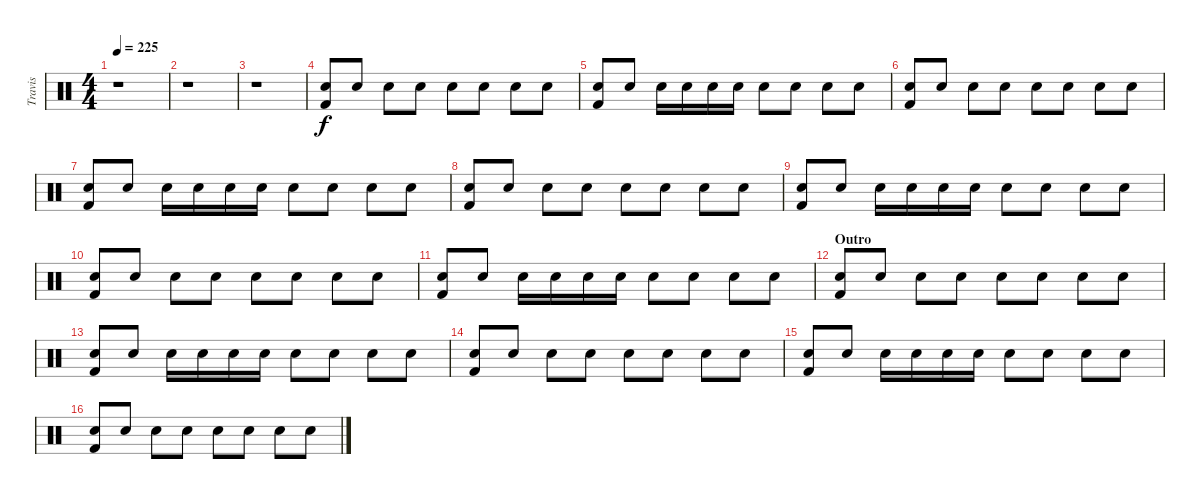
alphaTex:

\track ("Travis" "Travis") {instrument percussion}
\staff {score}
\articulation defaults
\ts (4 4)
\tempo 225
\clef neutral
\ks c
r.1{dy f} |
r.1 |
r.1 |
("Snare (hit) 2" "Kick (hit) 2").8 "Snare (hit) 2".8 "Snare (hit) 2".8 "Electric Snare (hit)".8 "Snare (hit) 2".8 "Snare (hit) 2".8 "Electric Snare (hit)".8 "Snare (hit) 2".8 |
("Snare (hit) 2" "Kick (hit) 2").8 "Snare (hit) 2".8 "Snare (hit) 2".16 "Snare (hit) 2".16 "Snare (hit) 2".16 "Snare (hit) 2".16 "Electric Snare (hit)".8 "Electric Snare (hit)".8 "Snare (hit) 2".8 "Snare (hit) 2".8 |
("Snare (hit) 2" "Kick (hit) 2").8 "Snare (hit) 2".8 "Snare (hit) 2".8 "Electric Snare (hit)".8 "Snare (hit) 2".8 "Snare (hit) 2".8 "Electric Snare (hit)".8 "Snare (hit) 2".8 |
("Snare (hit) 2" "Kick (hit) 2").8 "Snare (hit) 2".8 "Snare (hit) 2".16 "Snare (hit) 2".16 "Snare (hit) 2".16 "Snare (hit) 2".16 "Electric Snare (hit)".8 "Electric Snare (hit)".8 "Snare (hit) 2".8 "Snare (hit) 2".8 |
("Snare (hit) 2" "Kick (hit) 2").8 "Snare (hit) 2".8 "Snare (hit) 2".8 "Electric Snare (hit)".8 "Snare (hit) 2".8 "Snare (hit) 2".8 "Electric Snare (hit)".8 "Snare (hit) 2".8 |
("Snare (hit) 2" "Kick (hit) 2").8 "Snare (hit) 2".8 "Snare (hit) 2".16 "Snare (hit) 2".16 "Snare (hit) 2".16 "Snare (hit) 2".16 "Electric Snare (hit)".8 "Electric Snare (hit)".8 "Snare (hit) 2".8 "Snare (hit) 2".8 |
("Snare (hit) 2" "Kick (hit) 2").8 "Snare (hit) 2".8 "Snare (hit) 2".8 "Electric Snare (hit)".8 "Snare (hit) 2".8 "Snare (hit) 2".8 "Electric Snare (hit)".8 "Snare (hit) 2".8 |
("Snare (hit) 2" "Kick (hit) 2").8 "Snare (hit) 2".8 "Snare (hit) 2".16 "Snare (hit) 2".16 "Snare (hit) 2".16 "Snare (hit) 2".16 "Electric Snare (hit)".8 "Electric Snare (hit)".8 "Snare (hit) 2".8 "Snare (hit) 2".8 |
\section ("" "Outro")
("Snare (hit) 2" "Kick (hit) 2").8 "Snare (hit) 2".8 "Snare (hit) 2".8 "Electric Snare (hit)".8 "Snare (hit) 2".8 "Snare (hit) 2".8 "Electric Snare (hit)".8 "Snare (hit) 2".8 |
("Snare (hit) 2" "Kick (hit) 2").8 "Snare (hit) 2".8 "Snare (hit) 2".16 "Snare (hit) 2".16 "Snare (hit) 2".16 "Snare (hit) 2".16 "Electric Snare (hit)".8 "Electric Snare (hit)".8 "Snare (hit) 2".8 "Snare (hit) 2".8 |
("Snare (hit) 2" "Kick (hit) 2").8 "Snare (hit) 2".8 "Snare (hit) 2".8 "Electric Snare (hit)".8 "Snare (hit) 2".8 "Snare (hit) 2".8 "Electric Snare (hit)".8 "Snare (hit) 2".8 |
("Snare (hit) 2" "Kick (hit) 2").8 "Snare (hit) 2".8 "Snare (hit) 2".16 "Snare (hit) 2".16 "Snare (hit) 2".16 "Snare (hit) 2".16 "Electric Snare (hit)".8 "Electric Snare (hit)".8 "Snare (hit) 2".8 "Snare (hit) 2".8 |
("Snare (hit) 2" "Kick (hit) 2").8 "Snare (hit) 2".8 "Snare (hit) 2".8 "Electric Snare (hit)".8 "Snare (hit) 2".8 "Snare (hit) 2".8 "Electric Snare (hit)".8 "Snare (hit) 2".8
